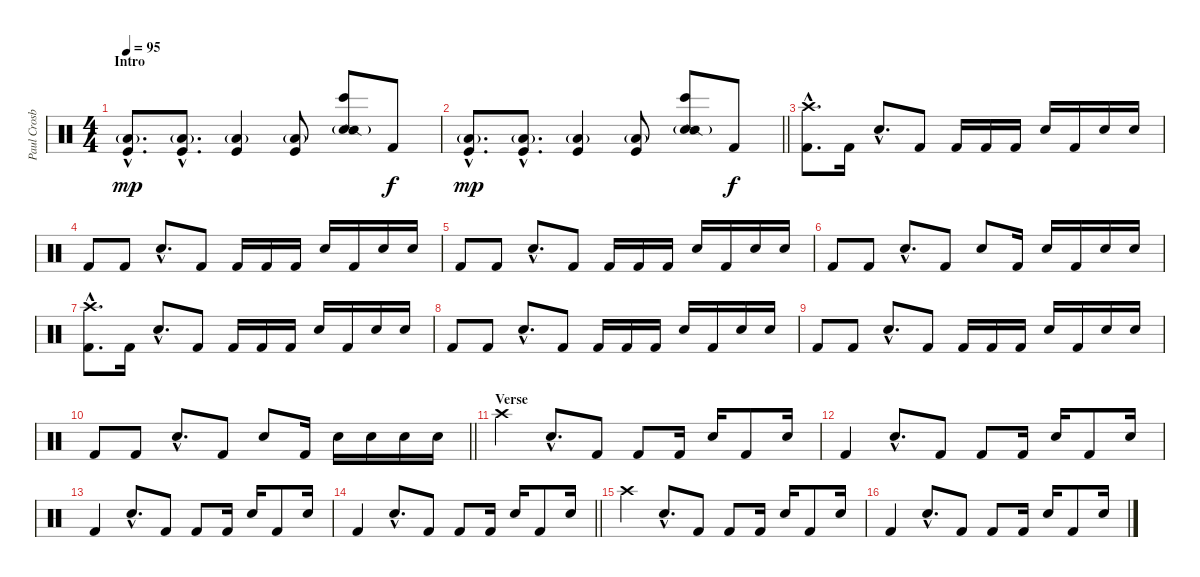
\track ("Paul Crosby (Drums)" "Paul Crosb") {instrument percussion}
\staff {score}
\articulation defaults
\ts (4 4)
\section ("" "Intro")
\tempo 95
\clef neutral
\ks c
("Kick (hit)"{hac} "Low Floor Tom (hit)"{g hac}).8{d dy mp} ("Kick (hit)"{hac} "Low Floor Tom (hit)"{g hac}).8{d} ("Kick (hit)" "Low Floor Tom (hit)"{g}).4 ("Kick (hit)" "Low Floor Tom (hit)"{g}).8 ("Snare (hit) 2"{g} "Bongo High (hit)" "Snare (side stick) 2").8 "Kick (hit) 2".8{dy f} |
\barLineRight lightlight
("Kick (hit)"{hac} "Low Floor Tom (hit)"{g hac}).8{d dy mp} ("Kick (hit)"{hac} "Low Floor Tom (hit)"{g hac}).8{d} ("Kick (hit)" "Low Floor Tom (hit)"{g}).4 ("Kick (hit)" "Low Floor Tom (hit)"{g}).8 ("Snare (hit) 2"{g} "Bongo High (hit)" "Snare (side stick) 2").8 "Kick (hit) 2".8{dy f} |
("Crash high (hit)"{hac} "Kick (hit) 2"{hac}).8{d} "Kick (hit) 2".16 "Electric Snare (hit)"{hac}.8{d} "Kick (hit) 2".8 "Kick (hit) 2".16 "Kick (hit) 2".16 "Kick (hit) 2".16 "Electric Snare (hit)".16 "Kick (hit) 2".16 "Electric Snare (hit)".16 "Electric Snare (hit)".16 |
"Kick (hit) 2".8 "Kick (hit) 2".8 "Electric Snare (hit)"{hac}.8{d} "Kick (hit) 2".8 "Kick (hit) 2".16 "Kick (hit) 2".16 "Kick (hit) 2".16 "Electric Snare (hit)".16 "Kick (hit) 2".16 "Electric Snare (hit)".16 "Electric Snare (hit)".16 |
"Kick (hit) 2".8 "Kick (hit) 2".8 "Electric Snare (hit)"{hac}.8{d} "Kick (hit) 2".8 "Kick (hit) 2".16 "Kick (hit) 2".16 "Kick (hit) 2".16 "Electric Snare (hit)".16 "Kick (hit) 2".16 "Electric Snare (hit)".16 "Electric Snare (hit)".16 |
"Kick (hit) 2".8 "Kick (hit) 2".8 "Electric Snare (hit)"{hac}.8{d} "Kick (hit) 2".8 "Electric Snare (hit)".8 "Kick (hit) 2".16 "Electric Snare (hit)".16 "Kick (hit) 2".16 "Electric Snare (hit)".16 "Electric Snare (hit)".16 |
("Crash high (hit)"{hac} "Kick (hit) 2"{hac}).8{d} "Kick (hit) 2".16 "Electric Snare (hit)"{hac}.8{d} "Kick (hit) 2".8 "Kick (hit) 2".16 "Kick (hit) 2".16 "Kick (hit) 2".16 "Electric Snare (hit)".16 "Kick (hit) 2".16 "Electric Snare (hit)".16 "Electric Snare (hit)".16 |
"Kick (hit) 2".8 "Kick (hit) 2".8 "Electric Snare (hit)"{hac}.8{d} "Kick (hit) 2".8 "Kick (hit) 2".16 "Kick (hit) 2".16 "Kick (hit) 2".16 "Electric Snare (hit)".16 "Kick (hit) 2".16 "Electric Snare (hit)".16 "Electric Snare (hit)".16 |
"Kick (hit) 2".8 "Kick (hit) 2".8 "Electric Snare (hit)"{hac}.8{d} "Kick (hit) 2".8 "Kick (hit) 2".16 "Kick (hit) 2".16 "Kick (hit) 2".16 "Electric Snare (hit)".16 "Kick (hit) 2".16 "Electric Snare (hit)".16 "Electric Snare (hit)".16 |
\barLineRight lightlight "Kick (hit) 2".8 "Kick (hit) 2".8 "Electric Snare (hit)"{hac}.8{d} "Kick (hit) 2".8 "Electric Snare (hit)".8 "Kick (hit) 2".16 "Electric Snare (hit)".16 "Electric Snare (hit)".16 "Electric Snare (hit)".16 "Electric Snare (hit)".16
|
\section ("" "Verse")
"Crash high (hit)".4 "Electric Snare (hit)"{hac}.8{d} "Kick (hit) 2".8 "Kick (hit) 2".8 "Kick (hit) 2".16 "Electric Snare (hit)".16 "Kick (hit) 2".8 "Electric Snare (hit)".16 |
"Kick (hit) 2".4 "Electric Snare (hit)"{hac}.8{d} "Kick (hit) 2".8 "Kick (hit) 2".8 "Kick (hit) 2".16 "Electric Snare (hit)".16 "Kick (hit) 2".8 "Electric Snare (hit)".16 |
"Kick (hit) 2".4 "Electric Snare (hit)"{hac}.8{d} "Kick (hit) 2".8 "Kick (hit) 2".8 "Kick (hit) 2".16 "Electric Snare (hit)".16 "Kick (hit) 2".8 "Electric Snare (hit)".16 |
\barLineRight lightlight "Kick (hit) 2".4 "Electric Snare (hit)"{hac}.8{d} "Kick (hit) 2".8 "Kick (hit) 2".8 "Kick (hit) 2".16 "Electric Snare (hit)".16 "Kick (hit) 2".8 "Electric Snare (hit)".16
|
"Crash high (hit)".4 "Electric Snare (hit)"{hac}.8{d} "Kick (hit) 2".8 "Kick (hit) 2".8 "Kick (hit) 2".16 "Electric Snare (hit)".16 "Kick (hit) 2".8 "Electric Snare (hit)".16 |
"Kick (hit) 2".4 "Electric Snare (hit)"{hac}.8{d} "Kick (hit) 2".8 "Kick (hit) 2".8 "Kick (hit) 2".16 "Electric Snare (hit)".16 "Kick (hit) 2".8 "Electric Snare (hit)".16
